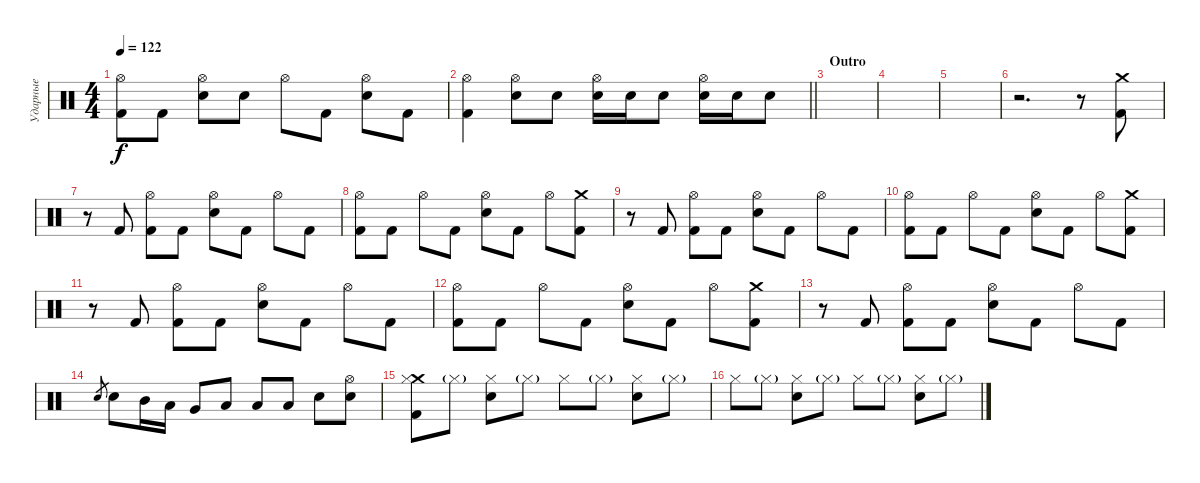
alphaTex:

\track ("Ударные" "Ударные") {instrument percussion}
\staff {score}
\articulation defaults
\ts (4 4)
\tempo 122
\clef neutral
\ks c
("Hi-Hat (open)" "Kick (hit) 2").8{dy f} "Kick (hit) 2".8 ("Hi-Hat (open)" "Electric Snare (hit)").8 "Electric Snare (hit)".8 "Hi-Hat (open)".8 "Kick (hit) 2".8 ("Hi-Hat (open)" "Electric Snare (hit)").8 "Kick (hit) 2".8 |
\barLineRight lightlight
("Hi-Hat (open)" "Kick (hit) 2").4 ("Hi-Hat (open)" "Electric Snare (hit)").8 "Electric Snare (hit)".8 ("Hi-Hat (open)" "Electric Snare (hit)").16 "Electric Snare (hit)".16 "Electric Snare (hit)".8 ("Hi-Hat (open)" "Electric Snare (hit)").16 "Electric Snare (hit)".16 "Electric Snare (hit)".8 |
\section ("" "Outro")
|
|
|
r.2{d} r.8 ("Crash medium (hit)" "Kick (hit) 2").8 |
r.8 "Kick (hit) 2".8 ("Hi-Hat (open)" "Kick (hit) 2").8 "Kick (hit) 2".8 ("Hi-Hat (open)" "Electric Snare (hit)").8 "Kick (hit) 2".8 "Hi-Hat (open)".8 "Kick (hit) 2".8 |
("Hi-Hat (open)" "Kick (hit) 2").8 "Kick (hit) 2".8 "Hi-Hat (open)".8 "Kick (hit) 2".8 ("Hi-Hat (open)" "Electric Snare (hit)").8 "Kick (hit) 2".8 "Hi-Hat (open)".8 ("Crash medium (hit)" "Kick (hit) 2").8 |
r.8 "Kick (hit) 2".8 ("Hi-Hat (open)" "Kick (hit) 2").8 "Kick (hit) 2".8 ("Hi-Hat (open)" "Electric Snare (hit)").8 "Kick (hit) 2".8 "Hi-Hat (open)".8 "Kick (hit) 2".8 |
("Hi-Hat (open)" "Kick (hit) 2").8 "Kick (hit) 2".8 "Hi-Hat (open)".8 "Kick (hit) 2".8 ("Hi-Hat (open)" "Electric Snare (hit)").8 "Kick (hit) 2".8 "Hi-Hat (open)".8 ("Crash medium (hit)" "Kick (hit) 2").8 |
r.8 "Kick (hit) 2".8 ("Hi-Hat (open)" "Kick (hit) 2").8 "Kick (hit) 2".8 ("Hi-Hat (open)" "Electric Snare (hit)").8 "Kick (hit) 2".8 "Hi-Hat (open)".8 "Kick (hit) 2".8 |
("Hi-Hat (open)" "Kick (hit) 2").8 "Kick (hit) 2".8 "Hi-Hat (open)".8 "Kick (hit) 2".8 ("Hi-Hat (open)" "Electric Snare (hit)").8 "Kick (hit) 2".8 "Hi-Hat (open)".8 ("Crash medium (hit)" "Kick (hit) 2").8 |
r.8 "Kick (hit) 2".8 ("Hi-Hat (open)" "Kick (hit) 2").8 "Kick (hit) 2".8 ("Hi-Hat (open)" "Electric Snare (hit)").8 "Kick (hit) 2".8 "Hi-Hat (open)".8 "Kick (hit) 2".8 |
"Electric Snare (hit)".8{gr} "Electric Snare (hit)".8 "Mid Tom (hit)".16 "Low Tom (hit)".16 "Very Low Tom (hit)".8 "Low Floor Tom (hit)".8 "Low Floor Tom (hit)".8 "Low Floor Tom (hit)".8 "Electric Snare (hit)".8 ("Hi-Hat (open)" "Electric Snare (hit)").8 |
("Crash medium (hit)" "Hi-Hat (closed)" "Kick (hit) 2").8 "Hi-Hat (closed)"{g}.8 ("Hi-Hat (closed)" "Electric Snare (hit)").8 "Hi-Hat (closed)"{g}.8 "Hi-Hat (closed)".8 "Hi-Hat (closed)"{g}.8 ("Hi-Hat (closed)" "Electric Snare (hit)").8 "Hi-Hat (closed)"{g}.8 |
"Hi-Hat (closed)".8 "Hi-Hat (closed)"{g}.8 ("Hi-Hat (closed)" "Electric Snare (hit)").8 "Hi-Hat (closed)"{g}.8 "Hi-Hat (closed)".8 "Hi-Hat (closed)"{g}.8 ("Hi-Hat (closed)" "Electric Snare (hit)").8 "Hi-Hat (closed)"{g}.8
